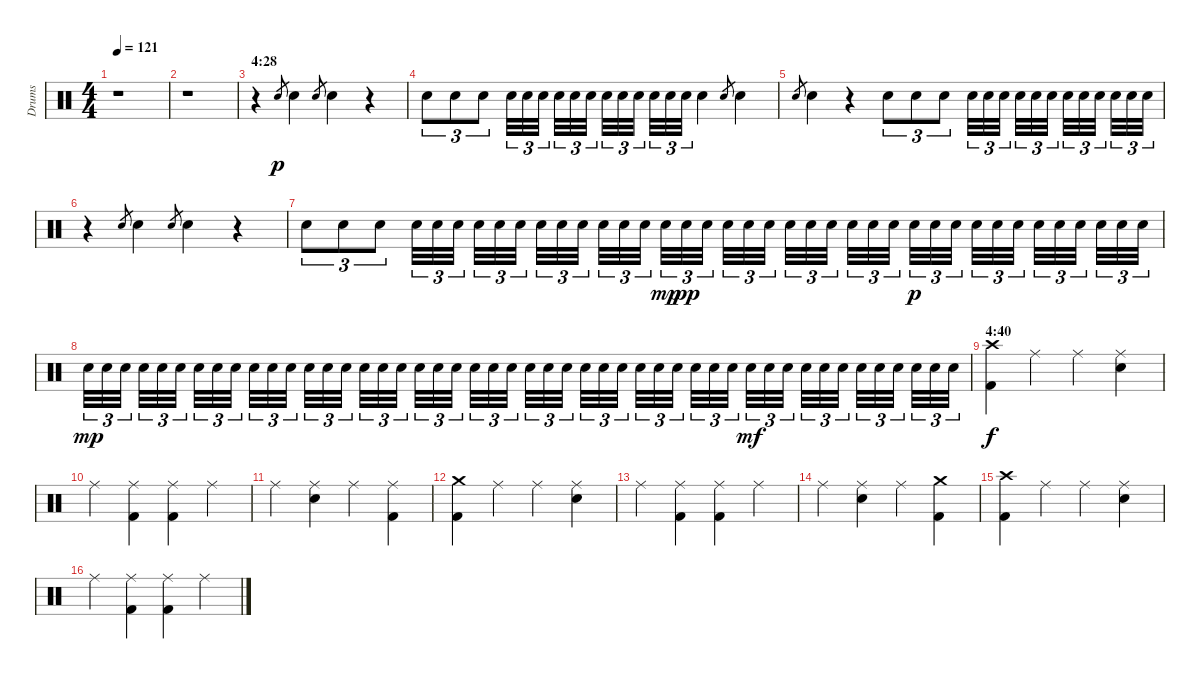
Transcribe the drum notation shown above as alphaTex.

\track ("Drums" "Drums") {instrument percussion}
\staff {score}
\articulation defaults
\ts (4 4)
\tempo 121
\clef neutral
\ks c
r.1{dy mp} |
r.1 |
\section ("" "4:28")
r.4 "Electric Snare (hit)".8{gr dy p} "Electric Snare (hit)".4 "Electric Snare (hit)".8{gr} "Electric Snare (hit)".4 r.4 |
"Electric Snare (hit)".8{tu (3 2)} "Electric Snare (hit)".8{tu (3 2)} "Electric Snare (hit)".8{tu (3 2)} "Electric Snare (hit)".32{tu (3 2)} "Electric Snare (hit)".32{tu (3 2)} "Electric Snare (hit)".32{tu (3 2)} "Electric Snare (hit)".32{tu (3 2)} "Electric Snare (hit)".32{tu (3 2)} "Electric Snare (hit)".32{tu (3 2)} "Electric Snare (hit)".32{tu (3 2)} "Electric Snare (hit)".32{tu (3 2)} "Electric Snare (hit)".32{tu (3 2)} "Electric Snare (hit)".32{tu (3 2)} "Electric Snare (hit)".32{tu (3 2)} "Electric Snare (hit)".32{tu (3 2)} "Electric Snare (hit)".4 "Electric Snare (hit)".8{gr} "Electric Snare (hit)".4 |
"Electric Snare (hit)".8{gr} "Electric Snare (hit)".4 r.4 "Electric Snare (hit)".8{tu (3 2)} "Electric Snare (hit)".8{tu (3 2)} "Electric Snare (hit)".8{tu (3 2)} "Electric Snare (hit)".32{tu (3 2)} "Electric Snare (hit)".32{tu (3 2)} "Electric Snare (hit)".32{tu (3 2)} "Electric Snare (hit)".32{tu (3 2)} "Electric Snare (hit)".32{tu (3 2)} "Electric Snare (hit)".32{tu (3 2)} "Electric Snare (hit)".32{tu (3 2)} "Electric Snare (hit)".32{tu (3 2)} "Electric Snare (hit)".32{tu (3 2)} "Electric Snare (hit)".32{tu (3 2)} "Electric Snare (hit)".32{tu (3 2)} "Electric Snare (hit)".32{tu (3 2)} |
r.4 "Electric Snare (hit)".8{gr} "Electric Snare (hit)".4 "Electric Snare (hit)".8{gr} "Electric Snare (hit)".4 r.4 |
"Electric Snare (hit)".8{tu (3 2)} "Electric Snare (hit)".8{tu (3 2)} "Electric Snare (hit)".8{tu (3 2)} "Electric Snare (hit)".32{tu (3 2)} "Electric Snare (hit)".32{tu (3 2)} "Electric Snare (hit)".32{tu (3 2)} "Electric Snare (hit)".32{tu (3 2)} "Electric Snare (hit)".32{tu (3 2)} "Electric Snare (hit)".32{tu (3 2)} "Electric Snare (hit)".32{tu (3 2)} "Electric Snare (hit)".32{tu (3 2)} "Electric Snare (hit)".32{tu (3 2)} "Electric Snare (hit)".32{tu (3 2)} "Electric Snare (hit)".32{tu (3 2)} "Electric Snare (hit)".32{tu (3 2)} "Electric Snare (hit)".32{tu (3 2) dy mp} "Electric Snare (hit)".32{tu (3 2) dy pp} "Electric Snare (hit)".32{tu (3 2)} "Electric Snare (hit)".32{tu (3 2)} "Electric Snare (hit)".32{tu (3 2)} "Electric Snare (hit)".32{tu (3 2)} "Electric Snare (hit)".32{tu (3 2)} "Electric Snare (hit)".32{tu (3 2)} "Electric Snare (hit)".32{tu (3 2)} "Electric Snare (hit)".32{tu (3 2)} "Electric Snare (hit)".32{tu (3 2)} "Electric Snare (hit)".32{tu (3 2)} "Electric Snare (hit)".32{tu (3 2) dy p} "Electric Snare (hit)".32{tu (3 2)} "Electric Snare (hit)".32{tu (3 2)} "Electric Snare (hit)".32{tu (3 2)} "Electric Snare (hit)".32{tu (3 2)} "Electric Snare (hit)".32{tu (3 2)} "Electric Snare (hit)".32{tu (3 2)} "Electric Snare (hit)".32{tu (3 2)} "Electric Snare (hit)".32{tu (3 2)} "Electric Snare (hit)".32{tu (3 2)} "Electric Snare (hit)".32{tu (3 2)} "Electric Snare (hit)".32{tu (3 2)} |
"Electric Snare (hit)".32{tu (3 2) dy mp} "Electric Snare (hit)".32{tu (3 2)} "Electric Snare (hit)".32{tu (3 2)} "Electric Snare (hit)".32{tu (3 2)} "Electric Snare (hit)".32{tu (3 2)} "Electric Snare (hit)".32{tu (3 2)} "Electric Snare (hit)".32{tu (3 2)} "Electric Snare (hit)".32{tu (3 2)} "Electric Snare (hit)".32{tu (3 2)} "Electric Snare (hit)".32{tu (3 2)} "Electric Snare (hit)".32{tu (3 2)} "Electric Snare (hit)".32{tu (3 2)} "Electric Snare (hit)".32{tu (3 2)} "Electric Snare (hit)".32{tu (3 2)} "Electric Snare (hit)".32{tu (3 2)} "Electric Snare (hit)".32{tu (3 2)} "Electric Snare (hit)".32{tu (3 2)} "Electric Snare (hit)".32{tu (3 2)} "Electric Snare (hit)".32{tu (3 2)} "Electric Snare (hit)".32{tu (3 2)} "Electric Snare (hit)".32{tu (3 2)} "Electric Snare (hit)".32{tu (3 2)} "Electric Snare (hit)".32{tu (3 2)} "Electric Snare (hit)".32{tu (3 2)} "Electric Snare (hit)".32{tu (3 2)} "Electric Snare (hit)".32{tu (3 2)} "Electric Snare (hit)".32{tu (3 2)} "Electric Snare (hit)".32{tu (3 2)} "Electric Snare (hit)".32{tu (3 2)} "Electric Snare (hit)".32{tu (3 2)} "Electric Snare (hit)".32{tu (3 2)} "Electric Snare (hit)".32{tu (3 2)} "Electric Snare (hit)".32{tu (3 2)} "Electric Snare (hit)".32{tu (3 2)} "Electric Snare (hit)".32{tu (3 2)} "Electric Snare (hit)".32{tu (3 2)} "Electric Snare (hit)".32{tu (3 2) dy mf} "Electric Snare (hit)".32{tu (3 2)} "Electric Snare (hit)".32{tu (3 2)} "Electric Snare (hit)".32{tu (3 2)} "Electric Snare (hit)".32{tu (3 2)} "Electric Snare (hit)".32{tu (3 2)} "Electric Snare (hit)".32{tu (3 2)} "Electric Snare (hit)".32{tu (3 2)} "Electric Snare (hit)".32{tu (3 2)} "Electric Snare (hit)".32{tu (3 2)} "Electric Snare (hit)".32{tu (3 2)} "Electric Snare (hit)".32{tu (3 2)} |
\section ("" "4:40")
("Crash high (hit)" "Kick (hit) 2").4{dy f} "Ride (middle)".4 "Ride (middle)".4 ("Ride (middle)" "Snare (hit) 2").4 |
"Ride (middle)".4 ("Ride (middle)" "Kick (hit) 2").4 ("Ride (middle)" "Kick (hit) 2").4 "Ride (middle)".4 |
"Ride (middle)".4 ("Ride (middle)" "Snare (hit) 2").4 "Ride (middle)".4 ("Ride (middle)" "Kick (hit) 2").4 |
("Crash medium (hit)" "Kick (hit) 2").4 "Ride (middle)".4 "Ride (middle)".4 ("Ride (middle)" "Snare (hit) 2").4 |
"Ride (middle)".4 ("Ride (middle)" "Kick (hit) 2").4 ("Ride (middle)" "Kick (hit) 2").4 "Ride (middle)".4 |
"Ride (middle)".4 ("Ride (middle)" "Snare (hit) 2").4 "Ride (middle)".4 ("Crash medium (hit)" "Kick (hit) 2").4 |
("Crash high (hit)" "Kick (hit) 2").4 "Ride (middle)".4 "Ride (middle)".4 ("Ride (middle)" "Snare (hit) 2").4 |
"Ride (middle)".4 ("Ride (middle)" "Kick (hit) 2").4 ("Ride (middle)" "Kick (hit) 2").4 "Ride (middle)".4
